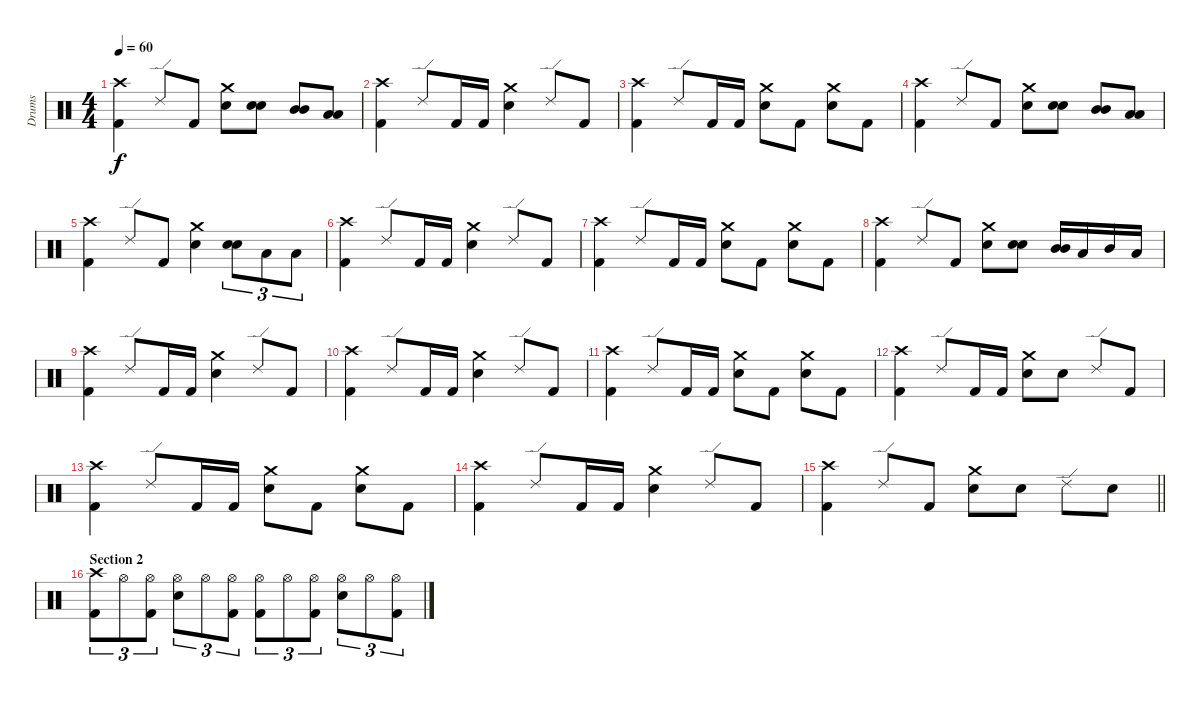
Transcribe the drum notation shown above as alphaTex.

\track ("Drums" "Drums") {instrument percussion}
\staff {score}
\articulation defaults
\ts (4 4)
\tempo 60
\clef neutral
\ks c
("Crash high (hit)" "Kick (hit) 2").4{dy f} "Ride (edge) 2".8 "Kick (hit) 2".8 ("Crash medium (hit)" "Electric Snare (hit)").8 ("Electric Snare (hit)" "Electric Snare (hit)").8{bu 60} ("Mid Tom (hit)" "Mid Tom (hit)").8{bu 60} ("Low Tom (hit)" "Low Tom (hit)").8{bu 60} |
("Crash high (hit)" "Kick (hit) 2").4 "Ride (edge) 2".8 "Kick (hit) 2".16 "Kick (hit) 2".16 ("Crash medium (hit)" "Electric Snare (hit)").4 "Ride (edge) 2".8 "Kick (hit) 2".8 |
("Crash high (hit)" "Kick (hit) 2").4 "Ride (edge) 2".8 "Kick (hit) 2".16 "Kick (hit) 2".16 ("Crash medium (hit)" "Electric Snare (hit)").8 "Kick (hit) 2".8 ("Crash medium (hit)" "Electric Snare (hit)").8 "Kick (hit) 2".8 |
("Crash high (hit)" "Kick (hit) 2").4 "Ride (edge) 2".8 "Kick (hit) 2".8 ("Crash medium (hit)" "Electric Snare (hit)").8 ("Electric Snare (hit)" "Electric Snare (hit)").8{bu 60} ("Mid Tom (hit)" "Mid Tom (hit)").8{bu 60} ("Low Tom (hit)" "Low Tom (hit)").8{bu 60} |
("Crash high (hit)" "Kick (hit) 2").4 "Ride (edge) 2".8 "Kick (hit) 2".8 ("Crash medium (hit)" "Electric Snare (hit)").4 ("Electric Snare (hit)" "Electric Snare (hit)").8{tu (3 2) bu 60} "Low Tom (hit)".8{tu (3 2)} "Low Tom (hit)".8{tu (3 2)} |
("Crash high (hit)" "Kick (hit) 2").4 "Ride (edge) 2".8 "Kick (hit) 2".16 "Kick (hit) 2".16 ("Crash medium (hit)" "Electric Snare (hit)").4 "Ride (edge) 2".8 "Kick (hit) 2".8 |
("Crash high (hit)" "Kick (hit) 2").4 "Ride (edge) 2".8 "Kick (hit) 2".16 "Kick (hit) 2".16 ("Crash medium (hit)" "Electric Snare (hit)").8 "Kick (hit) 2".8 ("Crash medium (hit)" "Electric Snare (hit)").8 "Kick (hit) 2".8 |
("Crash high (hit)" "Kick (hit) 2").4 "Ride (edge) 2".8 "Kick (hit) 2".8 ("Crash medium (hit)" "Electric Snare (hit)").8 ("Electric Snare (hit)" "Electric Snare (hit)").8{bu 60} ("Mid Tom (hit)" "Mid Tom (hit)").16{bu 60} "Low Tom (hit)".16 "Mid Tom (hit)".16 "Low Tom (hit)".16 |
("Crash high (hit)" "Kick (hit) 2").4 "Ride (edge) 2".8 "Kick (hit) 2".16 "Kick (hit) 2".16 ("Crash medium (hit)" "Electric Snare (hit)").4 "Ride (edge) 2".8 "Kick (hit) 2".8 |
("Crash high (hit)" "Kick (hit) 2").4 "Ride (edge) 2".8 "Kick (hit) 2".16 "Kick (hit) 2".16 ("Crash medium (hit)" "Electric Snare (hit)").4 "Ride (edge) 2".8 "Kick (hit) 2".8 |
("Crash high (hit)" "Kick (hit) 2").4 "Ride (edge) 2".8 "Kick (hit) 2".16 "Kick (hit) 2".16 ("Crash medium (hit)" "Electric Snare (hit)").8 "Kick (hit) 2".8 ("Crash medium (hit)" "Electric Snare (hit)").8 "Kick (hit) 2".8 |
("Crash high (hit)" "Kick (hit) 2").4 "Ride (edge) 2".8 "Kick (hit) 2".16 "Kick (hit) 2".16 ("Crash medium (hit)" "Electric Snare (hit)").8 "Electric Snare (hit)".8 "Ride (edge) 2".8 "Kick (hit) 2".8 |
("Crash high (hit)" "Kick (hit) 2").4 "Ride (edge) 2".8 "Kick (hit) 2".16 "Kick (hit) 2".16 ("Crash medium (hit)" "Electric Snare (hit)").8 "Kick (hit) 2".8 ("Crash medium (hit)" "Electric Snare (hit)").8 "Kick (hit) 2".8 |
("Crash high (hit)" "Kick (hit) 2").4 "Ride (edge) 2".8 "Kick (hit) 2".16 "Kick (hit) 2".16 ("Crash medium (hit)" "Electric Snare (hit)").4 "Ride (edge) 2".8 "Kick (hit) 2".8 |
\barLineRight lightlight
("Crash high (hit)" "Kick (hit) 2").4 "Ride (edge) 2".8 "Kick (hit) 2".8 ("Crash medium (hit)" "Electric Snare (hit)").8 "Electric Snare (hit)".8 "Ride (edge) 2".8 "Electric Snare (hit)".8 |
\section ("" "Section 2")
("Crash high (hit)" "Kick (hit) 2").8{tu (3 2)} "Hi-Hat (open)".8{tu (3 2)} ("Hi-Hat (open)" "Kick (hit) 2").8{tu (3 2)} ("Hi-Hat (open)" "Electric Snare (hit)").8{tu (3 2)} "Hi-Hat (open)".8{tu (3 2)} ("Hi-Hat (open)" "Kick (hit) 2").8{tu (3 2)} ("Hi-Hat (open)" "Kick (hit) 2").8{tu (3 2)} "Hi-Hat (open)".8{tu (3 2)} ("Hi-Hat (open)" "Kick (hit) 2").8{tu (3 2)} ("Hi-Hat (open)" "Electric Snare (hit)").8{tu (3 2)} "Hi-Hat (open)".8{tu (3 2)} ("Hi-Hat (open)" "Kick (hit) 2").8{tu (3 2)}
